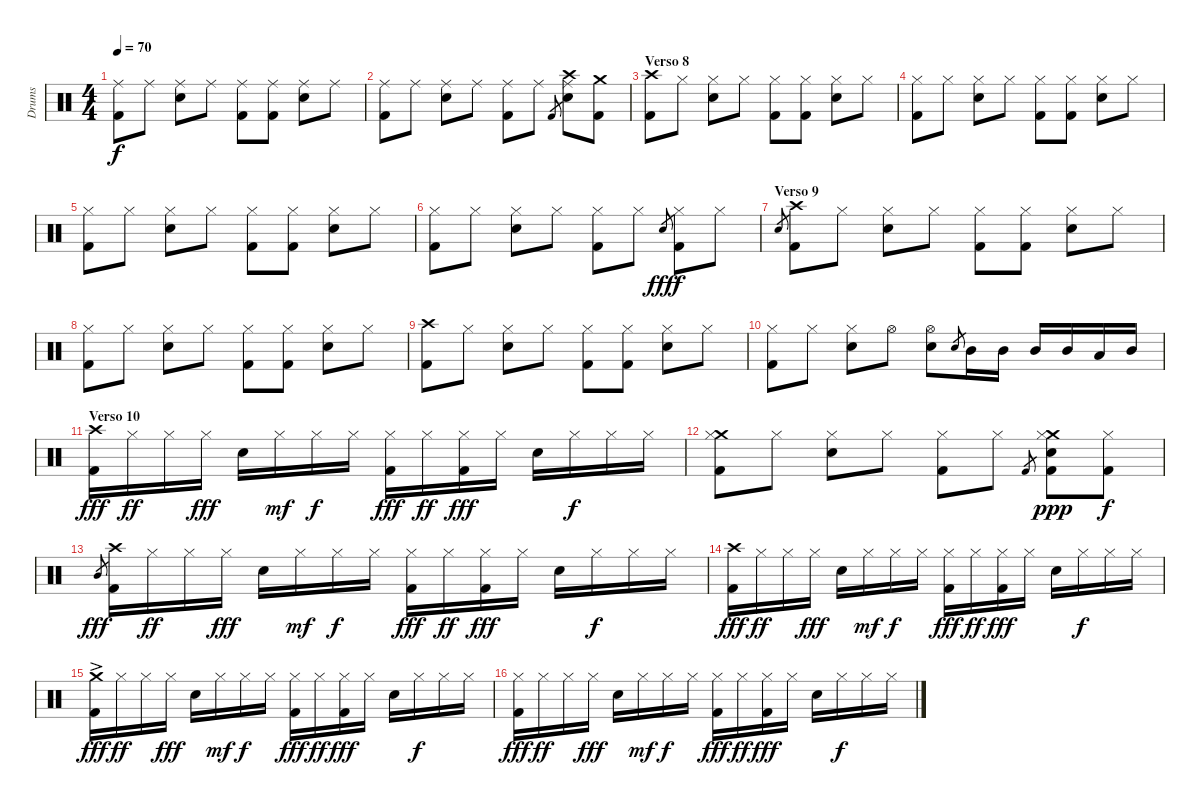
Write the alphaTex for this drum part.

\track ("Drums" "Drums") {instrument percussion}
\staff {score}
\articulation defaults
\ts (4 4)
\tempo 70
\clef neutral
\ks c
("Ride (middle)" "Kick (hit) 2").8{dy f} "Ride (middle)".8 ("Ride (middle)" "Electric Snare (hit)").8 "Ride (middle)".8 ("Ride (middle)" "Kick (hit) 2").8 ("Ride (middle)" "Kick (hit) 2").8 ("Ride (middle)" "Electric Snare (hit)").8 "Ride (middle)".8 |
("Ride (middle)" "Kick (hit) 2").8 "Ride (middle)".8 ("Ride (middle)" "Electric Snare (hit)").8 "Ride (middle)".8 ("Ride (middle)" "Kick (hit) 2").8 "Ride (middle)".8 "Kick (hit) 2".8{gr} ("Crash high (hit)" "Ride (middle)" "Electric Snare (hit)").8 ("Crash medium (hit)" "Kick (hit) 2").8 |
\section ("" "Verso 8")
("Crash high (hit)" "Kick (hit) 2").8 "Hi-Hat (closed)".8 ("Hi-Hat (closed)" "Electric Snare (hit)").8 "Hi-Hat (closed)".8 ("Hi-Hat (closed)" "Kick (hit) 2").8 ("Hi-Hat (closed)" "Kick (hit) 2").8 ("Hi-Hat (closed)" "Electric Snare (hit)").8 "Hi-Hat (closed)".8 |
("Hi-Hat (closed)" "Kick (hit) 2").8 "Hi-Hat (closed)".8 ("Hi-Hat (closed)" "Electric Snare (hit)").8 "Hi-Hat (closed)".8 ("Hi-Hat (closed)" "Kick (hit) 2").8 ("Hi-Hat (closed)" "Kick (hit) 2").8 ("Hi-Hat (closed)" "Electric Snare (hit)").8 "Hi-Hat (closed)".8 |
("Hi-Hat (closed)" "Kick (hit) 2").8 "Hi-Hat (closed)".8 ("Hi-Hat (closed)" "Electric Snare (hit)").8 "Hi-Hat (closed)".8 ("Hi-Hat (closed)" "Kick (hit) 2").8 ("Hi-Hat (closed)" "Kick (hit) 2").8 ("Hi-Hat (closed)" "Electric Snare (hit)").8 "Hi-Hat (closed)".8 |
("Hi-Hat (closed)" "Kick (hit) 2").8 "Hi-Hat (closed)".8 ("Hi-Hat (closed)" "Electric Snare (hit)").8 "Hi-Hat (closed)".8 ("Hi-Hat (closed)" "Kick (hit) 2").8 "Hi-Hat (closed)".8 "Electric Snare (hit)".8{gr dy fff} ("Hi-Hat (closed)" "Kick (hit) 2").8{dy f} "Hi-Hat (closed)".8 |
\section ("" "Verso 9")
"Electric Snare (hit)".8{gr} ("Crash high (hit)" "Kick (hit) 2").8 "Hi-Hat (closed)".8 ("Hi-Hat (closed)" "Electric Snare (hit)").8 "Hi-Hat (closed)".8 ("Hi-Hat (closed)" "Kick (hit) 2").8 ("Hi-Hat (closed)" "Kick (hit) 2").8 ("Hi-Hat (closed)" "Electric Snare (hit)").8 "Hi-Hat (closed)".8 |
("Hi-Hat (closed)" "Kick (hit) 2").8 "Hi-Hat (closed)".8 ("Hi-Hat (closed)" "Electric Snare (hit)").8 "Hi-Hat (closed)".8 ("Hi-Hat (closed)" "Kick (hit) 2").8 ("Hi-Hat (closed)" "Kick (hit) 2").8 ("Hi-Hat (closed)" "Electric Snare (hit)").8 "Hi-Hat (closed)".8 |
("Crash high (hit)" "Kick (hit) 2").8 "Hi-Hat (closed)".8 ("Hi-Hat (closed)" "Electric Snare (hit)").8 "Hi-Hat (closed)".8 ("Hi-Hat (closed)" "Kick (hit) 2").8 ("Hi-Hat (closed)" "Kick (hit) 2").8 ("Hi-Hat (closed)" "Electric Snare (hit)").8 "Hi-Hat (closed)".8 |
("Hi-Hat (closed)" "Kick (hit) 2").8 "Hi-Hat (closed)".8 ("Hi-Hat (closed)" "Electric Snare (hit)").8 "Hi-Hat (open)".8 ("Hi-Hat (open)" "Electric Snare (hit)").8 "Electric Snare (hit)".8{gr} "Mid Tom (hit)".16 "Mid Tom (hit)".16 "Mid Tom (hit)".16 "Mid Tom (hit)".16 "Low Tom (hit)".16 "Mid Tom (hit)".16 |
\section ("" "Verso 10")
("Crash high (hit)" "Kick (hit) 2").16{dy fff} "Hi-Hat (closed)".16{dy ff} "Hi-Hat (closed)".16 "Hi-Hat (closed)".16{dy fff} "Electric Snare (hit)".16 "Hi-Hat (closed)".16{dy mf} "Hi-Hat (closed)".16{dy f} "Hi-Hat (closed)".16 ("Hi-Hat (closed)" "Kick (hit) 2").16{dy fff} "Hi-Hat (closed)".16{dy ff} ("Hi-Hat (closed)" "Kick (hit) 2").16{dy fff} "Hi-Hat (closed)".16 "Electric Snare (hit)".16 "Hi-Hat (closed)".16{dy f} "Hi-Hat (closed)".16 "Hi-Hat (closed)".16 |
("Crash medium (hit)" "Hi-Hat (closed)" "Kick (hit) 2").8 "Hi-Hat (closed)".8 ("Hi-Hat (closed)" "Electric Snare (hit)").8 "Hi-Hat (closed)".8 ("Hi-Hat (closed)" "Kick (hit) 2").8 "Hi-Hat (closed)".8 "Kick (hit) 2".8{gr} ("Crash medium (hit)" "Hi-Hat (closed)" "Electric Snare (hit)" "Kick (hit) 2").8{dy ppp} ("Hi-Hat (closed)" "Kick (hit) 2").8{dy f} |
"Mid Tom (hit)".8{gr dy fff} ("Crash high (hit)" "Kick (hit) 2").16 "Hi-Hat (closed)".16{dy ff} "Hi-Hat (closed)".16 "Hi-Hat (closed)".16{dy fff} "Electric Snare (hit)".16 "Hi-Hat (closed)".16{dy mf} "Hi-Hat (closed)".16{dy f} "Hi-Hat (closed)".16 ("Hi-Hat (closed)" "Kick (hit) 2").16{dy fff} "Hi-Hat (closed)".16{dy ff} ("Hi-Hat (closed)" "Kick (hit) 2").16{dy fff} "Hi-Hat (closed)".16 "Electric Snare (hit)".16 "Hi-Hat (closed)".16{dy f} "Hi-Hat (closed)".16 "Hi-Hat (closed)".16 |
("Crash high (hit)" "Kick (hit) 2").16{dy fff} "Hi-Hat (closed)".16{dy ff} "Hi-Hat (closed)".16 "Hi-Hat (closed)".16{dy fff} "Electric Snare (hit)".16 "Hi-Hat (closed)".16{dy mf} "Hi-Hat (closed)".16{dy f} "Hi-Hat (closed)".16 ("Hi-Hat (closed)" "Kick (hit) 2").16{dy fff} "Hi-Hat (closed)".16{dy ff} ("Hi-Hat (closed)" "Kick (hit) 2").16{dy fff} "Hi-Hat (closed)".16 "Electric Snare (hit)".16 "Hi-Hat (closed)".16{dy f} "Hi-Hat (closed)".16 "Hi-Hat (closed)".16 |
("Crash medium (hit)"{ac} "Kick (hit) 2").16{dy fff} "Hi-Hat (closed)".16{dy ff} "Hi-Hat (closed)".16 "Hi-Hat (closed)".16{dy fff} "Electric Snare (hit)".16 "Hi-Hat (closed)".16{dy mf} "Hi-Hat (closed)".16{dy f} "Hi-Hat (closed)".16 ("Hi-Hat (closed)" "Kick (hit) 2").16{dy fff} "Hi-Hat (closed)".16{dy ff} ("Hi-Hat (closed)" "Kick (hit) 2").16{dy fff} "Hi-Hat (closed)".16 "Electric Snare (hit)".16 "Hi-Hat (closed)".16{dy f} "Hi-Hat (closed)".16 "Hi-Hat (closed)".16 |
("Hi-Hat (closed)" "Kick (hit) 2").16{dy fff} "Hi-Hat (closed)".16{dy ff} "Hi-Hat (closed)".16 "Hi-Hat (closed)".16{dy fff} "Electric Snare (hit)".16 "Hi-Hat (closed)".16{dy mf} "Hi-Hat (closed)".16{dy f} "Hi-Hat (closed)".16 ("Hi-Hat (closed)" "Kick (hit) 2").16{dy fff} "Hi-Hat (closed)".16{dy ff} ("Hi-Hat (closed)" "Kick (hit) 2").16{dy fff} "Hi-Hat (closed)".16 "Electric Snare (hit)".16 "Hi-Hat (closed)".16{dy f} "Hi-Hat (closed)".16 "Hi-Hat (closed)".16
